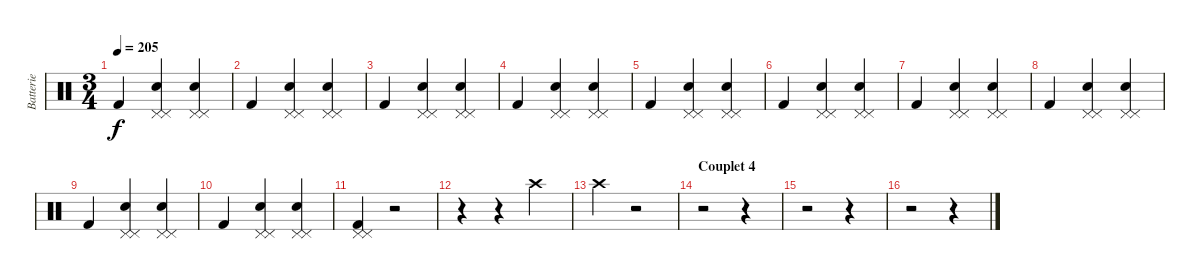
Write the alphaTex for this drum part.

\track ("Batterie" "Batterie") {instrument percussion}
\staff {score}
\articulation defaults
\ts (3 4)
\tempo 205
\clef neutral
\ks c "Kick (hit) 2".4{dy f}
("Pedal Hi-Hat (hit)" "Pedal Hi-Hat (hit)" "Snare (hit) 2").4 ("Pedal Hi-Hat (hit)" "Pedal Hi-Hat (hit)" "Snare (hit) 2").4 |
"Kick (hit) 2".4 ("Pedal Hi-Hat (hit)" "Pedal Hi-Hat (hit)" "Snare (hit) 2").4 ("Pedal Hi-Hat (hit)" "Pedal Hi-Hat (hit)" "Snare (hit) 2").4 |
"Kick (hit) 2".4 ("Pedal Hi-Hat (hit)" "Pedal Hi-Hat (hit)" "Snare (hit) 2").4 ("Pedal Hi-Hat (hit)" "Pedal Hi-Hat (hit)" "Snare (hit) 2").4 |
"Kick (hit) 2".4 ("Pedal Hi-Hat (hit)" "Pedal Hi-Hat (hit)" "Snare (hit) 2").4 ("Pedal Hi-Hat (hit)" "Pedal Hi-Hat (hit)" "Snare (hit) 2").4 |
"Kick (hit) 2".4 ("Pedal Hi-Hat (hit)" "Pedal Hi-Hat (hit)" "Snare (hit) 2").4 ("Pedal Hi-Hat (hit)" "Pedal Hi-Hat (hit)" "Snare (hit) 2").4 |
"Kick (hit) 2".4 ("Pedal Hi-Hat (hit)" "Pedal Hi-Hat (hit)" "Snare (hit) 2").4 ("Pedal Hi-Hat (hit)" "Pedal Hi-Hat (hit)" "Snare (hit) 2").4 |
"Kick (hit) 2".4 ("Pedal Hi-Hat (hit)" "Pedal Hi-Hat (hit)" "Snare (hit) 2").4 ("Pedal Hi-Hat (hit)" "Pedal Hi-Hat (hit)" "Snare (hit) 2").4 |
"Kick (hit) 2".4 ("Pedal Hi-Hat (hit)" "Pedal Hi-Hat (hit)" "Snare (hit) 2").4 ("Pedal Hi-Hat (hit)" "Pedal Hi-Hat (hit)" "Snare (hit) 2").4 |
"Kick (hit) 2".4 ("Pedal Hi-Hat (hit)" "Pedal Hi-Hat (hit)" "Snare (hit) 2").4 ("Pedal Hi-Hat (hit)" "Pedal Hi-Hat (hit)" "Snare (hit) 2").4 |
"Kick (hit) 2".4 ("Pedal Hi-Hat (hit)" "Pedal Hi-Hat (hit)" "Snare (hit) 2").4 ("Pedal Hi-Hat (hit)" "Pedal Hi-Hat (hit)" "Snare (hit) 2").4 |
("Pedal Hi-Hat (hit)" "Pedal Hi-Hat (hit)" "Kick (hit) 2").4 r.2 |
r.4 r.4 "Crash high (hit)".4 |
"Crash high (hit)".4 r.2 |
\section ("" "Couplet 4")
r.2 r.4 |
r.2 r.4 |
r.2 r.4
